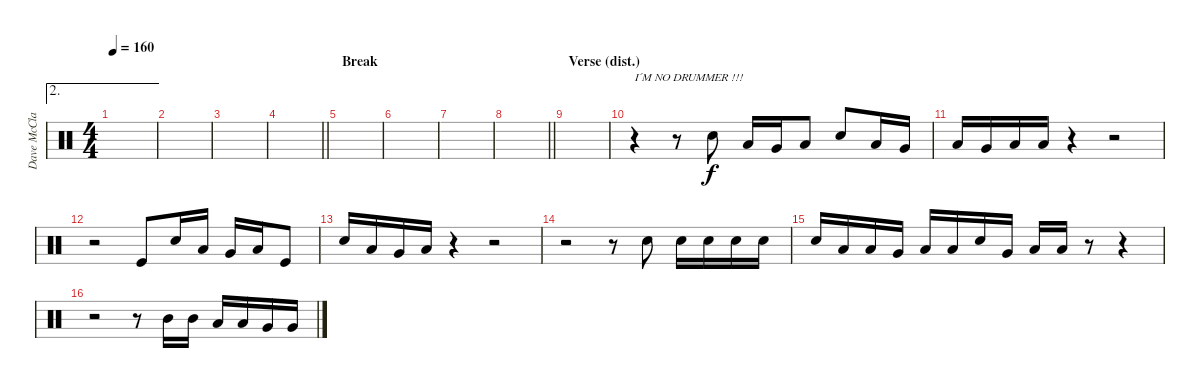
\track ("Dave McClain" "Dave McCla") {instrument percussion}
\staff {score}
\articulation defaults
\ae 2
\ts (4 4)
\tempo 160
\clef neutral
\ks c
|
|
|
\barLineRight lightlight
|
\section ("" "Break")
|
|
|
\barLineRight lightlight
|
\section ("" "Verse (dist.)")
|
r.4{txt "I´M NO DRUMMER !!!"} r.8 "Electric Snare (hit)".8 "Low Tom (hit)".16 "Very Low Tom (hit)".16 "Low Floor Tom (hit)".8 "Electric Snare (hit)".8 "Low Tom (hit)".16 "Very Low Tom (hit)".16 |
"Low Tom (hit)".16 "Very Low Tom (hit)".16 "Low Floor Tom (hit)".16 "Low Floor Tom (hit)".16 r.4 r.2 |
r.2 "Kick (hit)".8 "Electric Snare (hit)".16 "Low Tom (hit)".16 "Very Low Tom (hit)".16 "Low Floor Tom (hit)".16 "Kick (hit)".8 |
"Electric Snare (hit)".16 "Low Tom (hit)".16 "Very Low Tom (hit)".16 "Low Floor Tom (hit)".16 r.4 r.2 |
r.2 r.8 "Electric Snare (hit)".8 "Electric Snare (hit)".16 "Electric Snare (hit)".16 "Electric Snare (hit)".16 "Electric Snare (hit)".16 |
"Electric Snare (hit)".16 "Low Tom (hit)".16 "Low Tom (hit)".16 "Very Low Tom (hit)".16 "Low Floor Tom (hit)".16 "Low Floor Tom (hit)".16 "Electric Snare (hit)".16 "Very Low Tom (hit)".16 "Low Floor Tom (hit)".16 "Low Floor Tom (hit)".16 r.8 r.4 |
r.2 r.8 "Mid Tom (hit)".16 "Mid Tom (hit)".16 "Low Tom (hit)".16 "Low Tom (hit)".16 "Very Low Tom (hit)".16 "Very Low Tom (hit)".16
